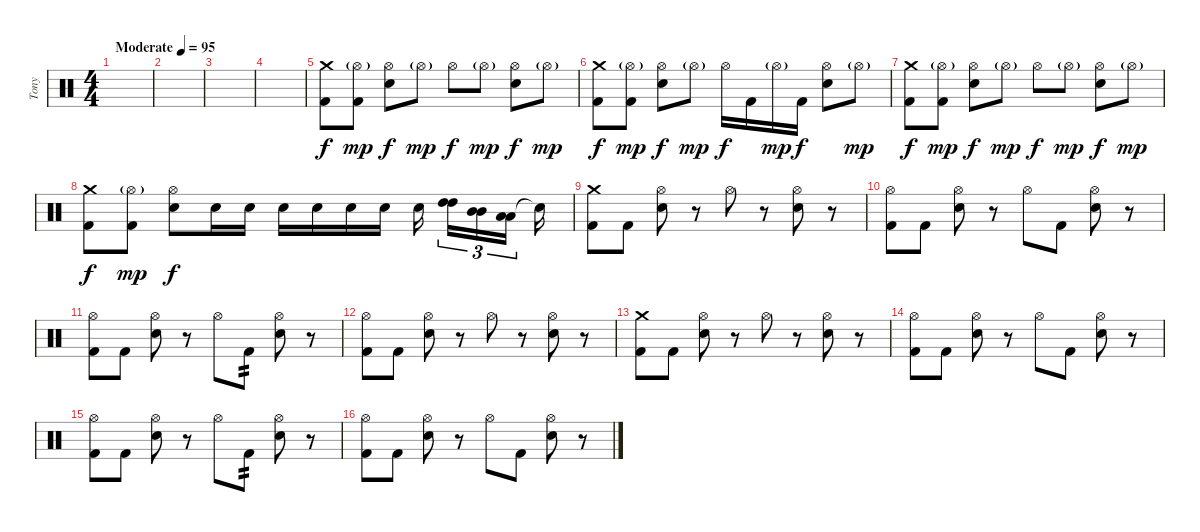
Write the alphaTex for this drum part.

\track ("Tony" "Tony") {instrument percussion}
\staff {score}
\articulation defaults
\ts (4 4)
\tempo (95 "Moderate")
\clef neutral
\ks c
|
|
|
|
("Crash medium (hit)" "Kick (hit) 2").8 ("Hi-Hat (open)"{g} "Kick (hit) 2").8{dy mp} ("Hi-Hat (open)" "Electric Snare (hit)").8{dy f} "Hi-Hat (open)"{g}.8{dy mp} "Hi-Hat (open)".8{dy f} "Hi-Hat (open)"{g}.8{dy mp} ("Hi-Hat (open)" "Electric Snare (hit)").8{dy f} "Hi-Hat (open)"{g}.8{dy mp} |
("Crash medium (hit)" "Kick (hit) 2").8{dy f} ("Hi-Hat (open)"{g} "Kick (hit) 2").8{dy mp} ("Hi-Hat (open)" "Electric Snare (hit)").8{dy f} "Hi-Hat (open)"{g}.8{dy mp} "Hi-Hat (open)".16{dy f} "Kick (hit) 2".16 "Hi-Hat (open)"{g}.16{dy mp} "Kick (hit) 2".16{dy f} ("Hi-Hat (open)" "Electric Snare (hit)").8 "Hi-Hat (open)"{g}.8{dy mp} |
("Crash medium (hit)" "Kick (hit) 2").8{dy f} ("Hi-Hat (open)"{g} "Kick (hit) 2").8{dy mp} ("Hi-Hat (open)" "Electric Snare (hit)").8{dy f} "Hi-Hat (open)"{g}.8{dy mp} "Hi-Hat (open)".8{dy f} "Hi-Hat (open)"{g}.8{dy mp} ("Hi-Hat (open)" "Electric Snare (hit)").8{dy f} "Hi-Hat (open)"{g}.8{dy mp} |
("Crash medium (hit)" "Kick (hit) 2").8{dy f} ("Hi-Hat (open)"{g} "Kick (hit) 2").8{dy mp} ("Hi-Hat (open)" "Electric Snare (hit)").8{dy f} "Electric Snare (hit)".16 "Electric Snare (hit)".16 "Electric Snare (hit)".16 "Electric Snare (hit)".16 "Electric Snare (hit)".16 "Electric Snare (hit)".16 "Electric Snare (hit)".16{beam splitsecondary} ("High Tom (hit)" "High Tom (hit)").16{tu (3 2)} ("Mid Tom (hit)" "Mid Tom (hit)").16{tu (3 2)} ("Low Tom (hit)" "Low Tom (hit)").16{tu (3 2) beam splitsecondary} "Snare (hit)"{t}.16 |
("Crash medium (hit)" "Kick (hit) 2").8 "Kick (hit) 2".8 ("Hi-Hat (open)" "Electric Snare (hit)").8 r.8 "Hi-Hat (open)".8 r.8 ("Hi-Hat (open)" "Electric Snare (hit)").8 r.8 |
("Hi-Hat (open)" "Kick (hit) 2").8 "Kick (hit) 2".8 ("Hi-Hat (open)" "Electric Snare (hit)").8 r.8 "Hi-Hat (open)".8 "Kick (hit) 2".8 ("Hi-Hat (open)" "Electric Snare (hit)").8 r.8 |
("Hi-Hat (open)" "Kick (hit) 2").8 "Kick (hit) 2".8 ("Hi-Hat (open)" "Electric Snare (hit)").8 r.8 "Hi-Hat (open)".8 "Kick (hit) 2".8{tp 2} ("Hi-Hat (open)" "Electric Snare (hit)").8 r.8 |
("Hi-Hat (open)" "Kick (hit) 2").8 "Kick (hit) 2".8 ("Hi-Hat (open)" "Electric Snare (hit)").8 r.8 "Hi-Hat (open)".8 r.8 ("Hi-Hat (open)" "Electric Snare (hit)").8 r.8 |
("Crash medium (hit)" "Kick (hit) 2").8 "Kick (hit) 2".8 ("Hi-Hat (open)" "Electric Snare (hit)").8 r.8 "Hi-Hat (open)".8 r.8 ("Hi-Hat (open)" "Electric Snare (hit)").8 r.8 |
("Hi-Hat (open)" "Kick (hit) 2").8 "Kick (hit) 2".8 ("Hi-Hat (open)" "Electric Snare (hit)").8 r.8 "Hi-Hat (open)".8 "Kick (hit) 2".8 ("Hi-Hat (open)" "Electric Snare (hit)").8 r.8 |
("Hi-Hat (open)" "Kick (hit) 2").8 "Kick (hit) 2".8 ("Hi-Hat (open)" "Electric Snare (hit)").8 r.8 "Hi-Hat (open)".8 "Kick (hit) 2".8{tp 2} ("Hi-Hat (open)" "Electric Snare (hit)").8 r.8 |
("Hi-Hat (open)" "Kick (hit) 2").8 "Kick (hit) 2".8 ("Hi-Hat (open)" "Electric Snare (hit)").8 r.8 "Hi-Hat (open)".8 "Kick (hit) 2".8 ("Hi-Hat (open)" "Electric Snare (hit)").8 r.8
